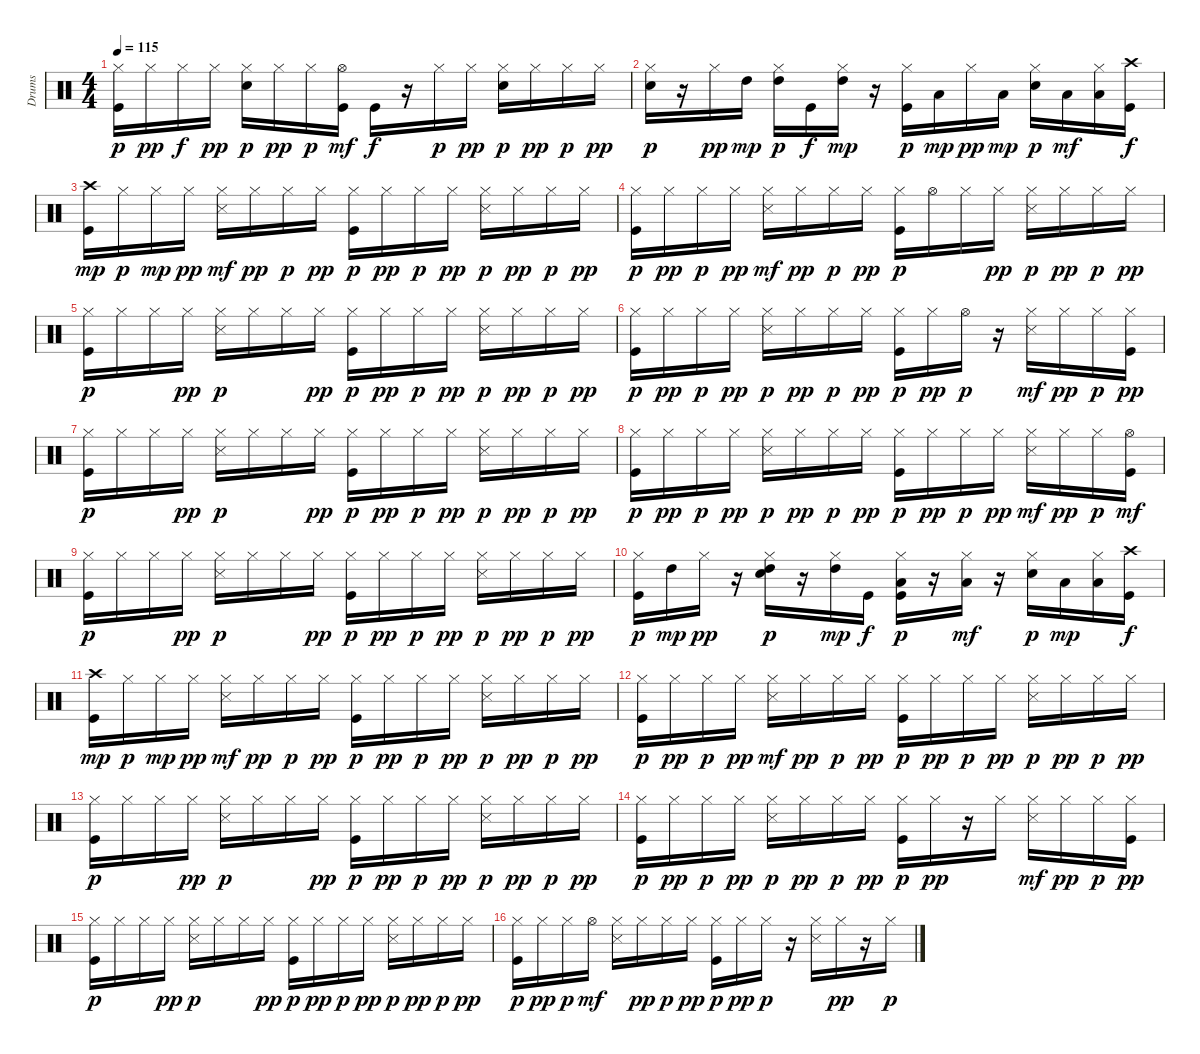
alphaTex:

\track ("Drums  " "Drums  ") {instrument percussion}
\staff {score}
\articulation defaults
\ts (4 4)
\tempo 115
\clef neutral
\ks c
("Kick (hit)" "Hi-Hat (closed)").16{dy p} "Hi-Hat (closed)".16{dy pp} "Hi-Hat (closed)".16{dy f} "Hi-Hat (closed)".16{dy pp} ("Snare (hit) 2" "Hi-Hat (closed)").16{dy p} "Hi-Hat (closed)".16{dy pp} "Hi-Hat (closed)".16{dy p} ("Kick (hit)" "Hi-Hat (open)").16{dy mf} "Kick (hit)".16{dy f} r.16 "Hi-Hat (closed)".16{dy p} "Hi-Hat (closed)".16{dy pp} ("Snare (hit) 2" "Hi-Hat (closed)").16{dy p} "Hi-Hat (closed)".16{dy pp} "Hi-Hat (closed)".16{dy p} "Hi-Hat (closed)".16{dy pp} |
("Snare (hit) 2" "Hi-Hat (closed)").16{dy p} r.16 "Hi-Hat (closed)".16{dy pp} "High Tom (hit)".16{dy mp} ("Hi-Hat (closed)" "High Tom (hit)").16{dy p} "Kick (hit)".16{dy f} ("Hi-Hat (closed)" "High Tom (hit)").16{dy mp} r.16 ("Kick (hit)" "Hi-Hat (closed)").16{dy p} "Low Tom (hit)".16{dy mp} "Hi-Hat (closed)".16{dy pp} "Low Floor Tom (hit)".16{dy mp} ("Snare (hit) 2" "Hi-Hat (closed)").16{dy p} "Low Floor Tom (hit)".16{dy mf} ("Hi-Hat (closed)" "Low Floor Tom (hit)").16 ("Kick (hit)" "Crash high (hit)").16{dy f} |
("Kick (hit)" "Crash high (hit)").16{dy mp} "Hi-Hat (closed)".16{dy p} "Hi-Hat (closed)".16{dy mp} "Hi-Hat (closed)".16{dy pp} ("Hi-Hat (closed)" "Snare (side stick) 3").16{dy mf} "Hi-Hat (closed)".16{dy pp} "Hi-Hat (closed)".16{dy p} "Hi-Hat (closed)".16{dy pp} ("Kick (hit)" "Hi-Hat (closed)").16{dy p} "Hi-Hat (closed)".16{dy pp} "Hi-Hat (closed)".16{dy p} "Hi-Hat (closed)".16{dy pp} ("Hi-Hat (closed)" "Snare (side stick) 3").16{dy p} "Hi-Hat (closed)".16{dy pp} "Hi-Hat (closed)".16{dy p} "Hi-Hat (closed)".16{dy pp} |
("Kick (hit)" "Hi-Hat (closed)").16{dy p} "Hi-Hat (closed)".16{dy pp} "Hi-Hat (closed)".16{dy p} "Hi-Hat (closed)".16{dy pp} ("Hi-Hat (closed)" "Snare (side stick) 3").16{dy mf} "Hi-Hat (closed)".16{dy pp} "Hi-Hat (closed)".16{dy p} "Hi-Hat (closed)".16{dy pp} ("Kick (hit)" "Hi-Hat (closed)").16{dy p} "Hi-Hat (open)".16 "Hi-Hat (closed)".16 "Hi-Hat (closed)".16{dy pp} ("Hi-Hat (closed)" "Snare (side stick) 3").16{dy p} "Hi-Hat (closed)".16{dy pp} "Hi-Hat (closed)".16{dy p} "Hi-Hat (closed)".16{dy pp} |
("Kick (hit)" "Hi-Hat (closed)").16{dy p} "Hi-Hat (closed)".16 "Hi-Hat (closed)".16 "Hi-Hat (closed)".16{dy pp} ("Hi-Hat (closed)" "Snare (side stick) 3").16{dy p} "Hi-Hat (closed)".16 "Hi-Hat (closed)".16 "Hi-Hat (closed)".16{dy pp} ("Kick (hit)" "Hi-Hat (closed)").16{dy p} "Hi-Hat (closed)".16{dy pp} "Hi-Hat (closed)".16{dy p} "Hi-Hat (closed)".16{dy pp} ("Hi-Hat (closed)" "Snare (side stick) 3").16{dy p} "Hi-Hat (closed)".16{dy pp} "Hi-Hat (closed)".16{dy p} "Hi-Hat (closed)".16{dy pp} |
("Kick (hit)" "Hi-Hat (closed)").16{dy p} "Hi-Hat (closed)".16{dy pp} "Hi-Hat (closed)".16{dy p} "Hi-Hat (closed)".16{dy pp} ("Hi-Hat (closed)" "Snare (side stick) 3").16{dy p} "Hi-Hat (closed)".16{dy pp} "Hi-Hat (closed)".16{dy p} "Hi-Hat (closed)".16{dy pp} ("Kick (hit)" "Hi-Hat (closed)").16{dy p} "Hi-Hat (closed)".16{dy pp} "Hi-Hat (open)".16{dy p} r.16 ("Hi-Hat (closed)" "Snare (side stick) 3").16{dy mf} "Hi-Hat (closed)".16{dy pp} "Hi-Hat (closed)".16{dy p} ("Kick (hit)" "Hi-Hat (closed)").16{dy pp} |
("Kick (hit)" "Hi-Hat (closed)").16{dy p} "Hi-Hat (closed)".16 "Hi-Hat (closed)".16 "Hi-Hat (closed)".16{dy pp} ("Hi-Hat (closed)" "Snare (side stick) 3").16{dy p} "Hi-Hat (closed)".16 "Hi-Hat (closed)".16 "Hi-Hat (closed)".16{dy pp} ("Kick (hit)" "Hi-Hat (closed)").16{dy p} "Hi-Hat (closed)".16{dy pp} "Hi-Hat (closed)".16{dy p} "Hi-Hat (closed)".16{dy pp} ("Hi-Hat (closed)" "Snare (side stick) 3").16{dy p} "Hi-Hat (closed)".16{dy pp} "Hi-Hat (closed)".16{dy p} "Hi-Hat (closed)".16{dy pp} |
("Kick (hit)" "Hi-Hat (closed)").16{dy p} "Hi-Hat (closed)".16{dy pp} "Hi-Hat (closed)".16{dy p} "Hi-Hat (closed)".16{dy pp} ("Hi-Hat (closed)" "Snare (side stick) 3").16{dy p} "Hi-Hat (closed)".16{dy pp} "Hi-Hat (closed)".16{dy p} "Hi-Hat (closed)".16{dy pp} ("Kick (hit)" "Hi-Hat (closed)").16{dy p} "Hi-Hat (closed)".16{dy pp} "Hi-Hat (closed)".16{dy p} "Hi-Hat (closed)".16{dy pp} ("Hi-Hat (closed)" "Snare (side stick) 3").16{dy mf} "Hi-Hat (closed)".16{dy pp} "Hi-Hat (closed)".16{dy p} ("Kick (hit)" "Hi-Hat (open)").16{dy mf} |
("Kick (hit)" "Hi-Hat (closed)").16{dy p} "Hi-Hat (closed)".16 "Hi-Hat (closed)".16 "Hi-Hat (closed)".16{dy pp} ("Hi-Hat (closed)" "Snare (side stick) 3").16{dy p} "Hi-Hat (closed)".16 "Hi-Hat (closed)".16 "Hi-Hat (closed)".16{dy pp} ("Kick (hit)" "Hi-Hat (closed)").16{dy p} "Hi-Hat (closed)".16{dy pp} "Hi-Hat (closed)".16{dy p} "Hi-Hat (closed)".16{dy pp} ("Hi-Hat (closed)" "Snare (side stick) 3").16{dy p} "Hi-Hat (closed)".16{dy pp} "Hi-Hat (closed)".16{dy p} "Hi-Hat (closed)".16{dy pp} |
("Kick (hit)" "Hi-Hat (closed)").16{dy p} "High Tom (hit)".16{dy mp} "Hi-Hat (closed)".16{dy pp} r.16 ("Snare (hit) 2" "Hi-Hat (closed)" "High Tom (hit)").16{dy p} r.16 ("Hi-Hat (closed)" "High Tom (hit)").16{dy mp} "Kick (hit)".16{dy f} ("Kick (hit)" "Hi-Hat (closed)" "Low Tom (hit)").16{dy p} r.16 ("Hi-Hat (closed)" "Low Tom (hit)").16{dy mf} r.16 ("Snare (hit) 2" "Hi-Hat (closed)").16{dy p} "Low Floor Tom (hit)".16{dy mp} ("Hi-Hat (closed)" "Low Floor Tom (hit)").16 ("Kick (hit)" "Crash high (hit)").16{dy f} |
("Kick (hit)" "Crash high (hit)").16{dy mp} "Hi-Hat (closed)".16{dy p} "Hi-Hat (closed)".16{dy mp} "Hi-Hat (closed)".16{dy pp} ("Hi-Hat (closed)" "Snare (side stick) 3").16{dy mf} "Hi-Hat (closed)".16{dy pp} "Hi-Hat (closed)".16{dy p} "Hi-Hat (closed)".16{dy pp} ("Kick (hit)" "Hi-Hat (closed)").16{dy p} "Hi-Hat (closed)".16{dy pp} "Hi-Hat (closed)".16{dy p} "Hi-Hat (closed)".16{dy pp} ("Hi-Hat (closed)" "Snare (side stick) 3").16{dy p} "Hi-Hat (closed)".16{dy pp} "Hi-Hat (closed)".16{dy p} "Hi-Hat (closed)".16{dy pp} |
("Kick (hit)" "Hi-Hat (closed)").16{dy p} "Hi-Hat (closed)".16{dy pp} "Hi-Hat (closed)".16{dy p} "Hi-Hat (closed)".16{dy pp} ("Hi-Hat (closed)" "Snare (side stick) 3").16{dy mf} "Hi-Hat (closed)".16{dy pp} "Hi-Hat (closed)".16{dy p} "Hi-Hat (closed)".16{dy pp} ("Kick (hit)" "Hi-Hat (closed)").16{dy p} "Hi-Hat (closed)".16{dy pp} "Hi-Hat (closed)".16{dy p} "Hi-Hat (closed)".16{dy pp} ("Hi-Hat (closed)" "Snare (side stick) 3").16{dy p} "Hi-Hat (closed)".16{dy pp} "Hi-Hat (closed)".16{dy p} "Hi-Hat (closed)".16{dy pp} |
("Kick (hit)" "Hi-Hat (closed)").16{dy p} "Hi-Hat (closed)".16 "Hi-Hat (closed)".16 "Hi-Hat (closed)".16{dy pp} ("Hi-Hat (closed)" "Snare (side stick) 3").16{dy p} "Hi-Hat (closed)".16 "Hi-Hat (closed)".16 "Hi-Hat (closed)".16{dy pp} ("Kick (hit)" "Hi-Hat (closed)").16{dy p} "Hi-Hat (closed)".16{dy pp} "Hi-Hat (closed)".16{dy p} "Hi-Hat (closed)".16{dy pp} ("Hi-Hat (closed)" "Snare (side stick) 3").16{dy p} "Hi-Hat (closed)".16{dy pp} "Hi-Hat (closed)".16{dy p} "Hi-Hat (closed)".16{dy pp} |
("Kick (hit)" "Hi-Hat (closed)").16{dy p} "Hi-Hat (closed)".16{dy pp} "Hi-Hat (closed)".16{dy p} "Hi-Hat (closed)".16{dy pp} ("Hi-Hat (closed)" "Snare (side stick) 3").16{dy p} "Hi-Hat (closed)".16{dy pp} "Hi-Hat (closed)".16{dy p} "Hi-Hat (closed)".16{dy pp} ("Kick (hit)" "Hi-Hat (closed)").16{dy p} "Hi-Hat (closed)".16{dy pp} r.16 "Hi-Hat (closed)".16 ("Hi-Hat (closed)" "Snare (side stick) 3").16{dy mf} "Hi-Hat (closed)".16{dy pp} "Hi-Hat (closed)".16{dy p} ("Kick (hit)" "Hi-Hat (closed)").16{dy pp} |
("Kick (hit)" "Hi-Hat (closed)").16{dy p} "Hi-Hat (closed)".16 "Hi-Hat (closed)".16 "Hi-Hat (closed)".16{dy pp} ("Hi-Hat (closed)" "Snare (side stick) 3").16{dy p} "Hi-Hat (closed)".16 "Hi-Hat (closed)".16 "Hi-Hat (closed)".16{dy pp} ("Kick (hit)" "Hi-Hat (closed)").16{dy p} "Hi-Hat (closed)".16{dy pp} "Hi-Hat (closed)".16{dy p} "Hi-Hat (closed)".16{dy pp} ("Hi-Hat (closed)" "Snare (side stick) 3").16{dy p} "Hi-Hat (closed)".16{dy pp} "Hi-Hat (closed)".16{dy p} "Hi-Hat (closed)".16{dy pp} |
("Kick (hit)" "Hi-Hat (closed)").16{dy p} "Hi-Hat (closed)".16{dy pp} "Hi-Hat (closed)".16{dy p} "Hi-Hat (open)".16{dy mf} ("Hi-Hat (closed)" "Snare (side stick) 3").16 "Hi-Hat (closed)".16{dy pp} "Hi-Hat (closed)".16{dy p} "Hi-Hat (closed)".16{dy pp} ("Kick (hit)" "Hi-Hat (closed)").16{dy p} "Hi-Hat (closed)".16{dy pp} "Hi-Hat (closed)".16{dy p} r.16 ("Hi-Hat (closed)" "Snare (side stick) 3").16 "Hi-Hat (closed)".16{dy pp} r.16 "Hi-Hat (closed)".16{dy p}
